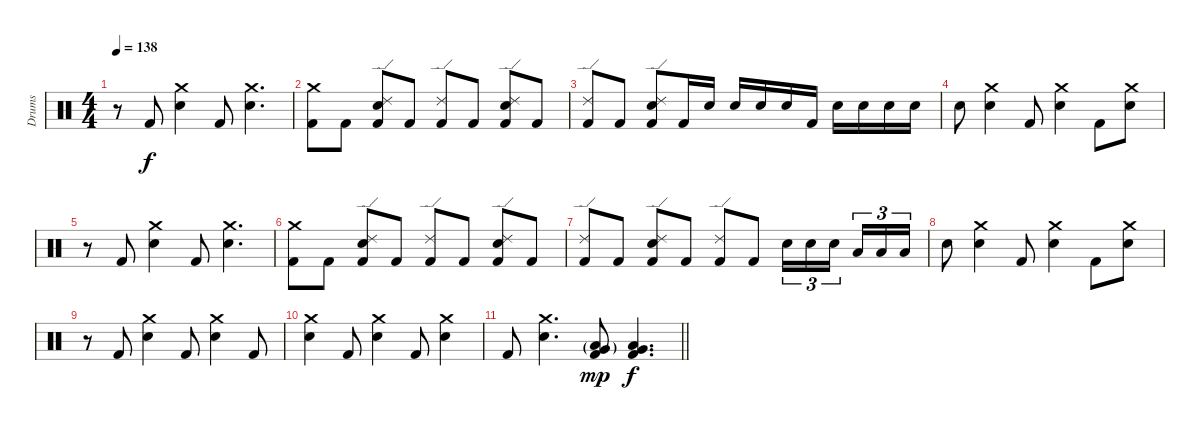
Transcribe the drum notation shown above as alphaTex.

\track ("Drums" "Drums") {instrument percussion}
\staff {score}
\articulation defaults
\ts (4 4)
\tempo 138
\clef neutral
\ks c
r.8{dy f} "Kick (hit) 2".8 ("Crash medium (hit)" "Snare (hit) 2").4 "Kick (hit) 2".8 ("Crash medium (hit)" "Snare (hit) 2").4{d} |
("Crash medium (hit)" "Kick (hit) 2").8 "Kick (hit) 2".8 ("Ride (edge) 2" "Snare (hit) 2" "Kick (hit) 2").8 "Kick (hit) 2".8 ("Ride (edge) 2" "Kick (hit) 2").8 "Kick (hit) 2".8 ("Ride (edge) 2" "Snare (hit) 2" "Kick (hit) 2").8 "Kick (hit) 2".8 |
("Ride (edge) 2" "Kick (hit) 2").8 "Kick (hit) 2".8 ("Ride (edge) 2" "Snare (hit) 2" "Kick (hit) 2").8 "Kick (hit) 2".16 "Snare (hit) 2".16 "Snare (hit) 2".16 "Snare (hit) 2".16 "Snare (hit) 2".16 "Kick (hit) 2".16 "Snare (hit) 2".16 "Snare (hit) 2".16 "Snare (hit) 2".16 "Snare (hit) 2".16 |
"Snare (hit) 2".8 ("Crash medium (hit)" "Snare (hit) 2").4 "Kick (hit) 2".8 ("Crash medium (hit)" "Snare (hit) 2").4 "Kick (hit) 2".8 ("Crash medium (hit)" "Snare (hit) 2").8 |
r.8 "Kick (hit) 2".8 ("Crash medium (hit)" "Snare (hit) 2").4 "Kick (hit) 2".8 ("Crash medium (hit)" "Snare (hit) 2").4{d} |
("Crash medium (hit)" "Kick (hit) 2").8 "Kick (hit) 2".8 ("Ride (edge) 2" "Snare (hit) 2" "Kick (hit) 2").8 "Kick (hit) 2".8 ("Ride (edge) 2" "Kick (hit) 2").8 "Kick (hit) 2".8 ("Ride (edge) 2" "Snare (hit) 2" "Kick (hit) 2").8 "Kick (hit) 2".8 |
("Ride (edge) 2" "Kick (hit) 2").8 "Kick (hit) 2".8 ("Ride (edge) 2" "Snare (hit) 2" "Kick (hit) 2").8 "Kick (hit) 2".8 ("Ride (edge) 2" "Kick (hit) 2").8 "Kick (hit) 2".8 "Snare (hit) 2".16{tu (3 2)} "Snare (hit) 2".16{tu (3 2)} "Snare (hit) 2".16{tu (3 2) beam splitsecondary} "Low Tom (hit)".16{tu (3 2)} "Low Tom (hit)".16{tu (3 2)} "Low Tom (hit)".16{tu (3 2)} |
"Snare (hit) 2".8 ("Crash medium (hit)" "Snare (hit) 2").4 "Kick (hit) 2".8 ("Crash medium (hit)" "Snare (hit) 2").4 "Kick (hit) 2".8 ("Crash medium (hit)" "Snare (hit) 2").8 |
r.8 "Kick (hit) 2".8 ("Crash medium (hit)" "Snare (hit) 2").4 "Kick (hit) 2".8 ("Crash medium (hit)" "Snare (hit) 2").4 "Kick (hit) 2".8 |
("Crash medium (hit)" "Snare (hit) 2").4 "Kick (hit) 2".8 ("Crash medium (hit)" "Snare (hit) 2").4 "Kick (hit) 2".8 ("Crash medium (hit)" "Snare (hit) 2").4 |
\barLineRight lightlight "Kick (hit) 2".8
("Crash medium (hit)" "Snare (hit) 2").4{d} ("Low Tom (hit)"{g} "Very Low Tom (hit)"{g} "Kick (hit) 2").8{dy mp} ("Low Tom (hit)" "Very Low Tom (hit)" "Kick (hit) 2").4{d dy f}
